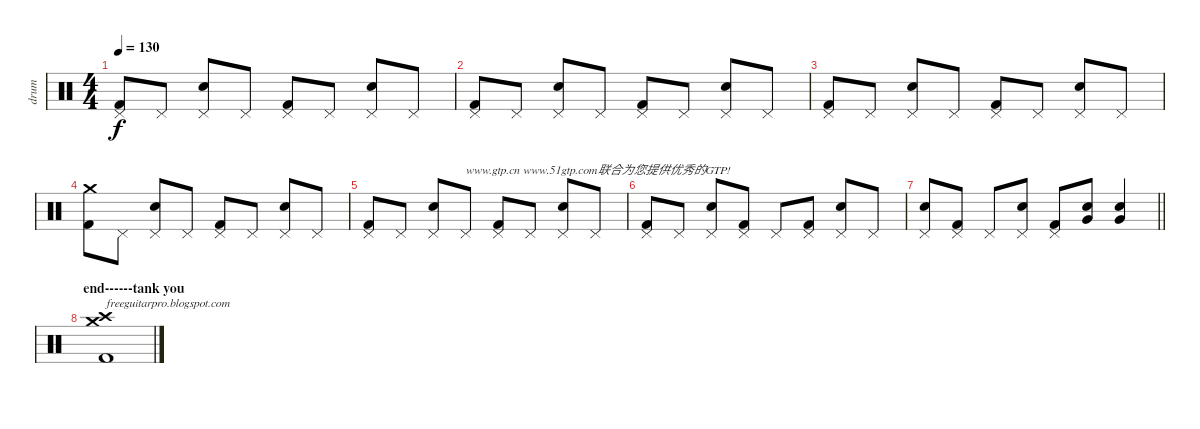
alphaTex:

\track ("drum" "drum") {instrument percussion}
\staff {score}
\articulation defaults
\ts (4 4)
\tempo 130
\clef neutral
\ks c
("Pedal Hi-Hat (hit)" "Kick (hit) 2").8{dy f} "Pedal Hi-Hat (hit)".8 ("Pedal Hi-Hat (hit)" "Electric Snare (hit)").8 "Pedal Hi-Hat (hit)".8 ("Pedal Hi-Hat (hit)" "Kick (hit) 2").8 "Pedal Hi-Hat (hit)".8 ("Pedal Hi-Hat (hit)" "Electric Snare (hit)").8 "Pedal Hi-Hat (hit)".8 |
("Pedal Hi-Hat (hit)" "Kick (hit) 2").8 "Pedal Hi-Hat (hit)".8 ("Pedal Hi-Hat (hit)" "Electric Snare (hit)").8 "Pedal Hi-Hat (hit)".8 ("Pedal Hi-Hat (hit)" "Kick (hit) 2").8 "Pedal Hi-Hat (hit)".8 ("Pedal Hi-Hat (hit)" "Electric Snare (hit)").8 "Pedal Hi-Hat (hit)".8 |
("Pedal Hi-Hat (hit)" "Kick (hit) 2").8 "Pedal Hi-Hat (hit)".8 ("Pedal Hi-Hat (hit)" "Electric Snare (hit)").8 "Pedal Hi-Hat (hit)".8 ("Pedal Hi-Hat (hit)" "Kick (hit) 2").8 "Pedal Hi-Hat (hit)".8 ("Pedal Hi-Hat (hit)" "Electric Snare (hit)").8 "Pedal Hi-Hat (hit)".8 |
("Crash medium (hit)" "Kick (hit) 2").8 "Pedal Hi-Hat (hit)".8 ("Pedal Hi-Hat (hit)" "Electric Snare (hit)").8 "Pedal Hi-Hat (hit)".8 ("Pedal Hi-Hat (hit)" "Kick (hit) 2").8 "Pedal Hi-Hat (hit)".8 ("Pedal Hi-Hat (hit)" "Electric Snare (hit)").8 "Pedal Hi-Hat (hit)".8 |
("Pedal Hi-Hat (hit)" "Kick (hit) 2").8 "Pedal Hi-Hat (hit)".8 ("Pedal Hi-Hat (hit)" "Electric Snare (hit)").8 "Pedal Hi-Hat (hit)".8{txt "www.gtp.cn www.51gtp.com联合为您提供优秀的GTP!"} ("Pedal Hi-Hat (hit)" "Kick (hit) 2").8 "Pedal Hi-Hat (hit)".8 ("Pedal Hi-Hat (hit)" "Electric Snare (hit)").8 "Pedal Hi-Hat (hit)".8 |
("Pedal Hi-Hat (hit)" "Kick (hit) 2").8 "Pedal Hi-Hat (hit)".8 ("Pedal Hi-Hat (hit)" "Electric Snare (hit)").8 ("Pedal Hi-Hat (hit)" "Kick (hit) 2").8 "Pedal Hi-Hat (hit)".8 ("Pedal Hi-Hat (hit)" "Kick (hit) 2").8 ("Pedal Hi-Hat (hit)" "Electric Snare (hit)").8 "Pedal Hi-Hat (hit)".8 |
\barLineRight lightlight
("Pedal Hi-Hat (hit)" "Electric Snare (hit)").8 ("Pedal Hi-Hat (hit)" "Kick (hit) 2").8 "Pedal Hi-Hat (hit)".8 ("Pedal Hi-Hat (hit)" "Electric Snare (hit)").8 ("Pedal Hi-Hat (hit)" "Kick (hit) 2").8 ("Very Low Tom (hit)" "Electric Snare (hit)").8 ("Very Low Tom (hit)" "Electric Snare (hit)").4 |
\section ("" "end------tank you")
("Crash high (hit)" "Crash medium (hit)" "Kick (hit) 2").1{txt "freeguitarpro.blogspot.com"}
